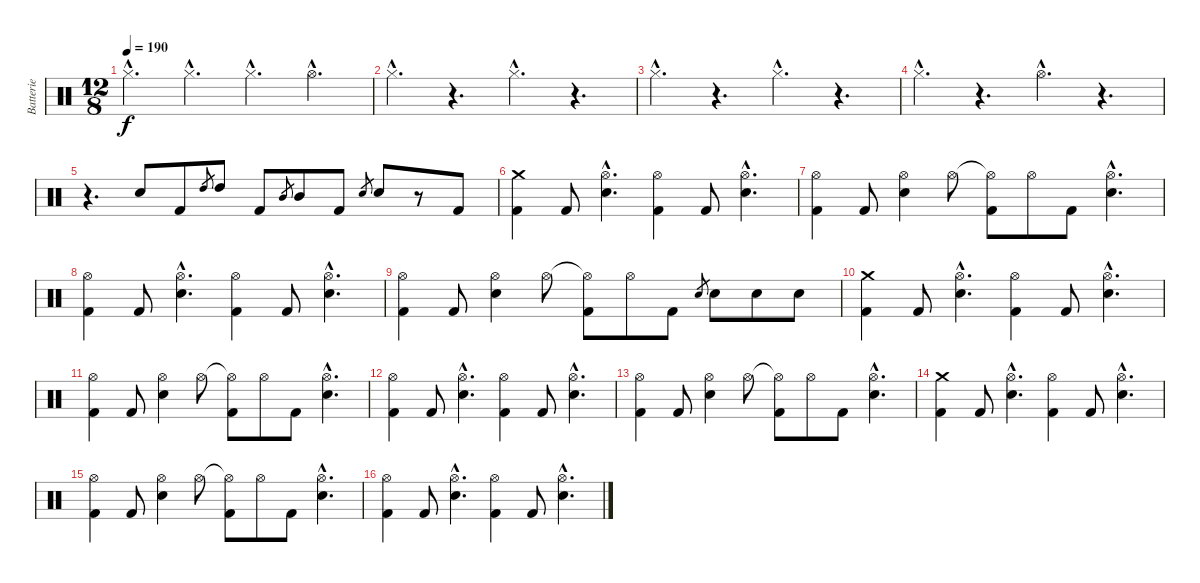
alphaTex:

\track ("Batterie" "Batterie") {instrument percussion}
\staff {score}
\articulation defaults
\ts (12 8)
\tempo 190
\clef neutral
\ks c "Hi-Hat (closed)"{hac}.4{d dy f} "Hi-Hat (closed)"{hac}.4{d} "Hi-Hat (closed)"{hac}.4{d} "Hi-Hat (open)"{hac}.4{d}
|
"Hi-Hat (closed)"{hac}.4{d} r.4{d} "Hi-Hat (closed)"{hac}.4{d} r.4{d} |
"Hi-Hat (closed)"{hac}.4{d} r.4{d} "Hi-Hat (closed)"{hac}.4{d} r.4{d} |
"Hi-Hat (closed)"{hac}.4{d} r.4{d} "Hi-Hat (open)"{hac}.4{d} r.4{d} |
r.4{d} "Snare (hit) 2".8 "Kick (hit) 2".8 "High Tom (hit)".8{gr} "High Tom (hit)".8 "Kick (hit) 2".8 "Mid Tom (hit)".8{gr} "Mid Tom (hit)".8 "Kick (hit) 2".8 "Snare (hit) 2".8{gr} "Snare (hit) 2".8 r.8 "Kick (hit) 2".8 |
("Crash medium (hit)" "Kick (hit) 2").4 "Kick (hit) 2".8 ("Hi-Hat (open)"{hac} "Snare (hit) 2"{hac}).4{d} ("Hi-Hat (open)" "Kick (hit) 2").4 "Kick (hit) 2".8 ("Hi-Hat (open)"{hac} "Snare (hit) 2"{hac}).4{d} |
("Hi-Hat (open)" "Kick (hit) 2").4 "Kick (hit) 2".8 ("Hi-Hat (open)" "Snare (hit) 2").4 "Hi-Hat (open)".8 ("Hi-Hat (open)"{t} "Kick (hit) 2").8 "Hi-Hat (open)".8 "Kick (hit) 2".8 ("Hi-Hat (open)"{hac} "Snare (hit) 2"{hac}).4{d} |
("Hi-Hat (open)" "Kick (hit) 2").4 "Kick (hit) 2".8 ("Hi-Hat (open)"{hac} "Snare (hit) 2"{hac}).4{d} ("Hi-Hat (open)" "Kick (hit) 2").4 "Kick (hit) 2".8 ("Hi-Hat (open)"{hac} "Snare (hit) 2"{hac}).4{d} |
("Hi-Hat (open)" "Kick (hit) 2").4 "Kick (hit) 2".8 ("Hi-Hat (open)" "Snare (hit) 2").4 "Hi-Hat (open)".8 ("Hi-Hat (open)"{t} "Kick (hit) 2").8 "Hi-Hat (open)".8 "Kick (hit) 2".8 "Snare (hit) 2".8{gr} "Snare (hit) 2".8 "Snare (hit) 2".8 "Snare (hit) 2".8 |
("Crash medium (hit)" "Kick (hit) 2").4 "Kick (hit) 2".8 ("Hi-Hat (open)"{hac} "Snare (hit) 2"{hac}).4{d} ("Hi-Hat (open)" "Kick (hit) 2").4 "Kick (hit) 2".8 ("Hi-Hat (open)"{hac} "Snare (hit) 2"{hac}).4{d} |
("Hi-Hat (open)" "Kick (hit) 2").4 "Kick (hit) 2".8 ("Hi-Hat (open)" "Snare (hit) 2").4 "Hi-Hat (open)".8 ("Hi-Hat (open)"{t} "Kick (hit) 2").8 "Hi-Hat (open)".8 "Kick (hit) 2".8 ("Hi-Hat (open)"{hac} "Snare (hit) 2"{hac}).4{d} |
("Hi-Hat (open)" "Kick (hit) 2").4 "Kick (hit) 2".8 ("Hi-Hat (open)"{hac} "Snare (hit) 2"{hac}).4{d} ("Hi-Hat (open)" "Kick (hit) 2").4 "Kick (hit) 2".8 ("Hi-Hat (open)"{hac} "Snare (hit) 2"{hac}).4{d} |
("Hi-Hat (open)" "Kick (hit) 2").4 "Kick (hit) 2".8 ("Hi-Hat (open)" "Snare (hit) 2").4 "Hi-Hat (open)".8 ("Hi-Hat (open)"{t} "Kick (hit) 2").8 "Hi-Hat (open)".8 "Kick (hit) 2".8 ("Hi-Hat (open)"{hac} "Snare (hit) 2"{hac}).4{d} |
("Crash medium (hit)" "Kick (hit) 2").4 "Kick (hit) 2".8 ("Hi-Hat (open)"{hac} "Snare (hit) 2"{hac}).4{d} ("Hi-Hat (open)" "Kick (hit) 2").4 "Kick (hit) 2".8 ("Hi-Hat (open)"{hac} "Snare (hit) 2"{hac}).4{d} |
("Hi-Hat (open)" "Kick (hit) 2").4 "Kick (hit) 2".8 ("Hi-Hat (open)" "Snare (hit) 2").4 "Hi-Hat (open)".8 ("Hi-Hat (open)"{t} "Kick (hit) 2").8 "Hi-Hat (open)".8 "Kick (hit) 2".8 ("Hi-Hat (open)"{hac} "Snare (hit) 2"{hac}).4{d} |
("Hi-Hat (open)" "Kick (hit) 2").4 "Kick (hit) 2".8 ("Hi-Hat (open)"{hac} "Snare (hit) 2"{hac}).4{d} ("Hi-Hat (open)" "Kick (hit) 2").4 "Kick (hit) 2".8 ("Hi-Hat (open)"{hac} "Snare (hit) 2"{hac}).4{d}
